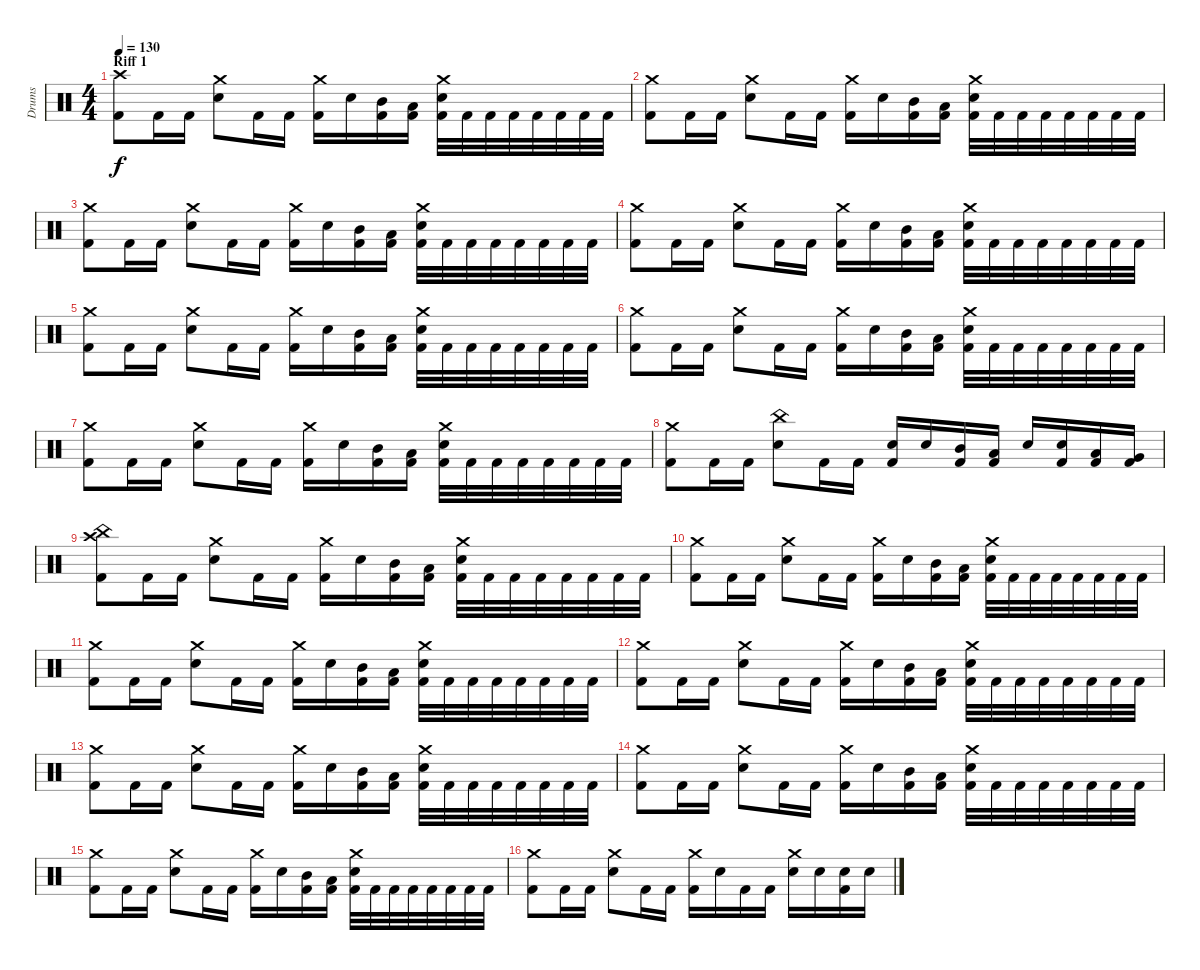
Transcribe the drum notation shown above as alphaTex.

\track ("Drums" "Drums") {instrument percussion}
\staff {score}
\articulation defaults
\ts (4 4)
\section ("" "Riff 1")
\tempo 130
\clef neutral
\ks c
("Kick (hit) 2" "Crash high (hit)").8{dy f} "Kick (hit) 2".16 "Kick (hit) 2".16 ("Snare (hit) 2" "Crash medium (hit)").8 "Kick (hit) 2".16 "Kick (hit) 2".16 ("Kick (hit) 2" "Crash medium (hit)").16 "Snare (hit) 2".16 ("Kick (hit) 2" "Mid Tom (hit)").16 ("Kick (hit) 2" "Low Tom (hit)").16 ("Kick (hit) 2" "Snare (hit) 2" "Crash medium (hit)").32 "Kick (hit) 2".32 "Kick (hit) 2".32 "Kick (hit) 2".32 "Kick (hit) 2".32 "Kick (hit) 2".32 "Kick (hit) 2".32 "Kick (hit) 2".32 |
("Kick (hit) 2" "Crash medium (hit)").8 "Kick (hit) 2".16 "Kick (hit) 2".16 ("Snare (hit) 2" "Crash medium (hit)").8 "Kick (hit) 2".16 "Kick (hit) 2".16 ("Kick (hit) 2" "Crash medium (hit)").16 "Snare (hit) 2".16 ("Kick (hit) 2" "Mid Tom (hit)").16 ("Kick (hit) 2" "Low Tom (hit)").16 ("Kick (hit) 2" "Snare (hit) 2" "Crash medium (hit)").32 "Kick (hit) 2".32 "Kick (hit) 2".32 "Kick (hit) 2".32 "Kick (hit) 2".32 "Kick (hit) 2".32 "Kick (hit) 2".32 "Kick (hit) 2".32 |
("Kick (hit) 2" "Crash medium (hit)").8 "Kick (hit) 2".16 "Kick (hit) 2".16 ("Snare (hit) 2" "Crash medium (hit)").8 "Kick (hit) 2".16 "Kick (hit) 2".16 ("Kick (hit) 2" "Crash medium (hit)").16 "Snare (hit) 2".16 ("Kick (hit) 2" "Mid Tom (hit)").16 ("Kick (hit) 2" "Low Tom (hit)").16 ("Kick (hit) 2" "Snare (hit) 2" "Crash medium (hit)").32 "Kick (hit) 2".32 "Kick (hit) 2".32 "Kick (hit) 2".32 "Kick (hit) 2".32 "Kick (hit) 2".32 "Kick (hit) 2".32 "Kick (hit) 2".32 |
("Kick (hit) 2" "Crash medium (hit)").8 "Kick (hit) 2".16 "Kick (hit) 2".16 ("Snare (hit) 2" "Crash medium (hit)").8 "Kick (hit) 2".16 "Kick (hit) 2".16 ("Kick (hit) 2" "Crash medium (hit)").16 "Snare (hit) 2".16 ("Kick (hit) 2" "Mid Tom (hit)").16 ("Kick (hit) 2" "Low Tom (hit)").16 ("Kick (hit) 2" "Snare (hit) 2" "Crash medium (hit)").32 "Kick (hit) 2".32 "Kick (hit) 2".32 "Kick (hit) 2".32 "Kick (hit) 2".32 "Kick (hit) 2".32 "Kick (hit) 2".32 "Kick (hit) 2".32 |
("Kick (hit) 2" "Crash medium (hit)").8 "Kick (hit) 2".16 "Kick (hit) 2".16 ("Snare (hit) 2" "Crash medium (hit)").8 "Kick (hit) 2".16 "Kick (hit) 2".16 ("Kick (hit) 2" "Crash medium (hit)").16 "Snare (hit) 2".16 ("Kick (hit) 2" "Mid Tom (hit)").16 ("Kick (hit) 2" "Low Tom (hit)").16 ("Kick (hit) 2" "Snare (hit) 2" "Crash medium (hit)").32 "Kick (hit) 2".32 "Kick (hit) 2".32 "Kick (hit) 2".32 "Kick (hit) 2".32 "Kick (hit) 2".32 "Kick (hit) 2".32 "Kick (hit) 2".32 |
("Kick (hit) 2" "Crash medium (hit)").8 "Kick (hit) 2".16 "Kick (hit) 2".16 ("Snare (hit) 2" "Crash medium (hit)").8 "Kick (hit) 2".16 "Kick (hit) 2".16 ("Kick (hit) 2" "Crash medium (hit)").16 "Snare (hit) 2".16 ("Kick (hit) 2" "Mid Tom (hit)").16 ("Kick (hit) 2" "Low Tom (hit)").16 ("Kick (hit) 2" "Snare (hit) 2" "Crash medium (hit)").32 "Kick (hit) 2".32 "Kick (hit) 2".32 "Kick (hit) 2".32 "Kick (hit) 2".32 "Kick (hit) 2".32 "Kick (hit) 2".32 "Kick (hit) 2".32 |
("Kick (hit) 2" "Crash medium (hit)").8 "Kick (hit) 2".16 "Kick (hit) 2".16 ("Snare (hit) 2" "Crash medium (hit)").8 "Kick (hit) 2".16 "Kick (hit) 2".16 ("Kick (hit) 2" "Crash medium (hit)").16 "Snare (hit) 2".16 ("Kick (hit) 2" "Mid Tom (hit)").16 ("Kick (hit) 2" "Low Tom (hit)").16 ("Kick (hit) 2" "Snare (hit) 2" "Crash medium (hit)").32 "Kick (hit) 2".32 "Kick (hit) 2".32 "Kick (hit) 2".32 "Kick (hit) 2".32 "Kick (hit) 2".32 "Kick (hit) 2".32 "Kick (hit) 2".32 |
("Kick (hit) 2" "Crash medium (hit)").8 "Kick (hit) 2".16 "Kick (hit) 2".16 ("Snare (hit) 2" "China (hit)").8 "Kick (hit) 2".16 "Kick (hit) 2".16 ("Kick (hit) 2" "Snare (hit) 2").16 "Snare (hit) 2".16 ("Kick (hit) 2" "Mid Tom (hit)").16 ("Kick (hit) 2" "Low Tom (hit)").16 "Snare (hit) 2".16 ("Kick (hit) 2" "Snare (hit) 2").16 ("Kick (hit) 2" "Low Tom (hit)").16 ("Kick (hit) 2" "Very Low Tom (hit)").16 |
("Kick (hit) 2" "China (hit)" "Crash high (hit)").8 "Kick (hit) 2".16 "Kick (hit) 2".16 ("Snare (hit) 2" "Crash medium (hit)").8 "Kick (hit) 2".16 "Kick (hit) 2".16 ("Kick (hit) 2" "Crash medium (hit)").16 "Snare (hit) 2".16 ("Kick (hit) 2" "Mid Tom (hit)").16 ("Kick (hit) 2" "Low Tom (hit)").16 ("Kick (hit) 2" "Snare (hit) 2" "Crash medium (hit)").32 "Kick (hit) 2".32 "Kick (hit) 2".32 "Kick (hit) 2".32 "Kick (hit) 2".32 "Kick (hit) 2".32 "Kick (hit) 2".32 "Kick (hit) 2".32 |
("Kick (hit) 2" "Crash medium (hit)").8 "Kick (hit) 2".16 "Kick (hit) 2".16 ("Snare (hit) 2" "Crash medium (hit)").8 "Kick (hit) 2".16 "Kick (hit) 2".16 ("Kick (hit) 2" "Crash medium (hit)").16 "Snare (hit) 2".16 ("Kick (hit) 2" "Mid Tom (hit)").16 ("Kick (hit) 2" "Low Tom (hit)").16 ("Kick (hit) 2" "Snare (hit) 2" "Crash medium (hit)").32 "Kick (hit) 2".32 "Kick (hit) 2".32 "Kick (hit) 2".32 "Kick (hit) 2".32 "Kick (hit) 2".32 "Kick (hit) 2".32 "Kick (hit) 2".32 |
("Kick (hit) 2" "Crash medium (hit)").8 "Kick (hit) 2".16 "Kick (hit) 2".16 ("Snare (hit) 2" "Crash medium (hit)").8 "Kick (hit) 2".16 "Kick (hit) 2".16 ("Kick (hit) 2" "Crash medium (hit)").16 "Snare (hit) 2".16 ("Kick (hit) 2" "Mid Tom (hit)").16 ("Kick (hit) 2" "Low Tom (hit)").16 ("Kick (hit) 2" "Snare (hit) 2" "Crash medium (hit)").32 "Kick (hit) 2".32 "Kick (hit) 2".32 "Kick (hit) 2".32 "Kick (hit) 2".32 "Kick (hit) 2".32 "Kick (hit) 2".32 "Kick (hit) 2".32 |
("Kick (hit) 2" "Crash medium (hit)").8 "Kick (hit) 2".16 "Kick (hit) 2".16 ("Snare (hit) 2" "Crash medium (hit)").8 "Kick (hit) 2".16 "Kick (hit) 2".16 ("Kick (hit) 2" "Crash medium (hit)").16 "Snare (hit) 2".16 ("Kick (hit) 2" "Mid Tom (hit)").16 ("Kick (hit) 2" "Low Tom (hit)").16 ("Kick (hit) 2" "Snare (hit) 2" "Crash medium (hit)").32 "Kick (hit) 2".32 "Kick (hit) 2".32 "Kick (hit) 2".32 "Kick (hit) 2".32 "Kick (hit) 2".32 "Kick (hit) 2".32 "Kick (hit) 2".32 |
("Kick (hit) 2" "Crash medium (hit)").8 "Kick (hit) 2".16 "Kick (hit) 2".16 ("Snare (hit) 2" "Crash medium (hit)").8 "Kick (hit) 2".16 "Kick (hit) 2".16 ("Kick (hit) 2" "Crash medium (hit)").16 "Snare (hit) 2".16 ("Kick (hit) 2" "Mid Tom (hit)").16 ("Kick (hit) 2" "Low Tom (hit)").16 ("Kick (hit) 2" "Snare (hit) 2" "Crash medium (hit)").32 "Kick (hit) 2".32 "Kick (hit) 2".32 "Kick (hit) 2".32 "Kick (hit) 2".32 "Kick (hit) 2".32 "Kick (hit) 2".32 "Kick (hit) 2".32 |
("Kick (hit) 2" "Crash medium (hit)").8 "Kick (hit) 2".16 "Kick (hit) 2".16 ("Snare (hit) 2" "Crash medium (hit)").8 "Kick (hit) 2".16 "Kick (hit) 2".16 ("Kick (hit) 2" "Crash medium (hit)").16 "Snare (hit) 2".16 ("Kick (hit) 2" "Mid Tom (hit)").16 ("Kick (hit) 2" "Low Tom (hit)").16 ("Kick (hit) 2" "Snare (hit) 2" "Crash medium (hit)").32 "Kick (hit) 2".32 "Kick (hit) 2".32 "Kick (hit) 2".32 "Kick (hit) 2".32 "Kick (hit) 2".32 "Kick (hit) 2".32 "Kick (hit) 2".32 |
("Kick (hit) 2" "Crash medium (hit)").8 "Kick (hit) 2".16 "Kick (hit) 2".16 ("Snare (hit) 2" "Crash medium (hit)").8 "Kick (hit) 2".16 "Kick (hit) 2".16 ("Kick (hit) 2" "Crash medium (hit)").16 "Snare (hit) 2".16 ("Kick (hit) 2" "Mid Tom (hit)").16 ("Kick (hit) 2" "Low Tom (hit)").16 ("Kick (hit) 2" "Snare (hit) 2" "Crash medium (hit)").32 "Kick (hit) 2".32 "Kick (hit) 2".32 "Kick (hit) 2".32 "Kick (hit) 2".32 "Kick (hit) 2".32 "Kick (hit) 2".32 "Kick (hit) 2".32 |
("Kick (hit) 2" "Crash medium (hit)").8 "Kick (hit) 2".16 "Kick (hit) 2".16 ("Snare (hit) 2" "Crash medium (hit)").8 "Kick (hit) 2".16 "Kick (hit) 2".16 ("Kick (hit) 2" "Crash medium (hit)").16 "Snare (hit) 2".16 "Kick (hit) 2".16 "Kick (hit) 2".16 ("Snare (hit) 2" "Crash medium (hit)").16 "Snare (hit) 2".16 ("Kick (hit) 2" "Snare (hit) 2").16 "Snare (hit) 2".16
